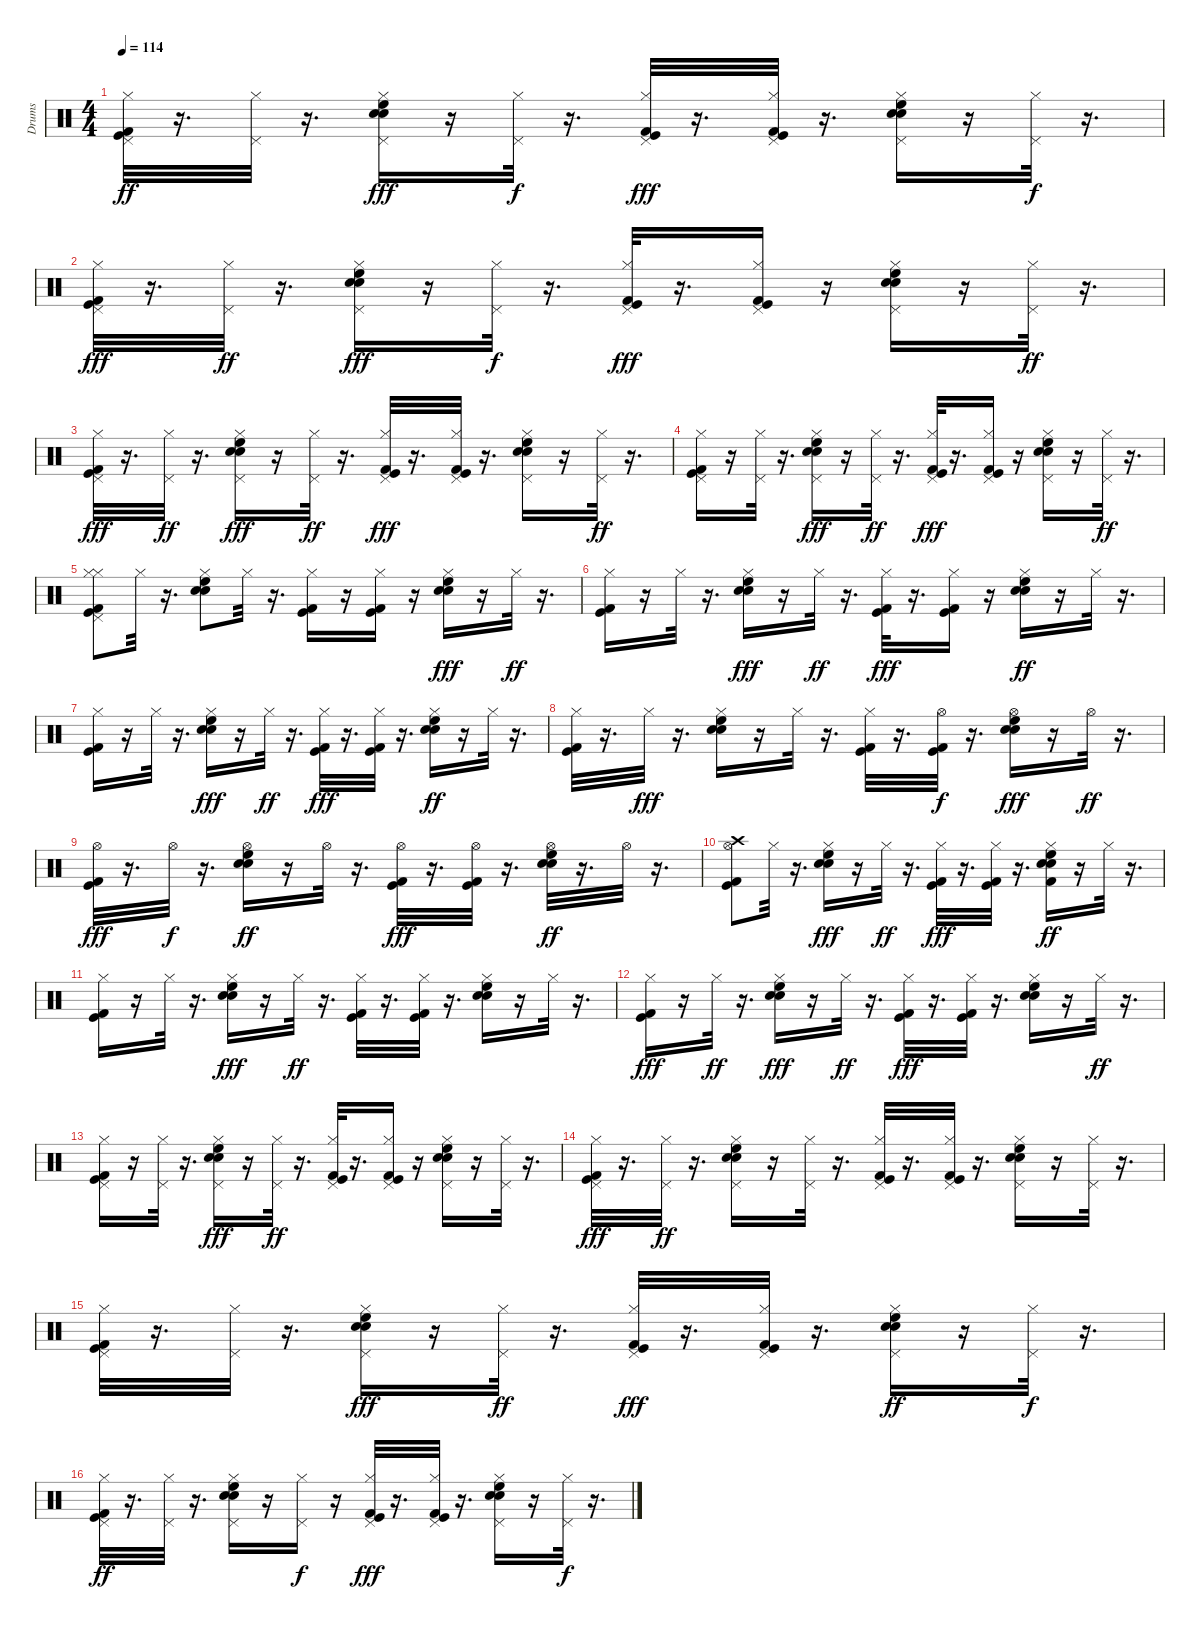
\track ("Drums" "Drums") {instrument percussion}
\staff {score}
\articulation defaults
\ts (4 4)
\tempo 114
\clef neutral
\ks c
("Kick (hit)" "Kick (hit) 2" "Hi-Hat (closed)" "Pedal Hi-Hat (hit)").32{dy ff} r.16{d} ("Hi-Hat (closed)" "Pedal Hi-Hat (hit)").32 r.16{d} ("Electric Snare (hit)" "High Floor Tom (hit)" "Hi-Hat (closed)" "Pedal Hi-Hat (hit)" "Snare (hit) 2").16{dy fff} r.16 ("Pedal Hi-Hat (hit)" "Hi-Hat (closed)").32{dy f} r.16{d} ("Kick (hit)" "Pedal Hi-Hat (hit)" "Kick (hit) 2" "Hi-Hat (closed)").32{dy fff} r.16{d} ("Kick (hit) 2" "Hi-Hat (closed)" "Pedal Hi-Hat (hit)" "Kick (hit)").32 r.16{d} ("Snare (hit) 2" "Electric Snare (hit)" "Hi-Hat (closed)" "Pedal Hi-Hat (hit)" "High Floor Tom (hit)").16 r.16 ("Hi-Hat (closed)" "Pedal Hi-Hat (hit)").32{dy f} r.16{d} |
("Hi-Hat (closed)" "Pedal Hi-Hat (hit)" "Kick (hit)" "Kick (hit) 2").32{dy fff} r.16{d} ("Hi-Hat (closed)" "Pedal Hi-Hat (hit)").32{dy ff} r.16{d} ("Electric Snare (hit)" "Hi-Hat (closed)" "Pedal Hi-Hat (hit)" "Snare (hit) 2" "High Floor Tom (hit)").16{dy fff} r.16 ("Pedal Hi-Hat (hit)" "Hi-Hat (closed)").32{dy f} r.16{d} ("Kick (hit) 2" "Pedal Hi-Hat (hit)" "Hi-Hat (closed)" "Kick (hit)").32{dy fff} r.16{d} ("Kick (hit) 2" "Pedal Hi-Hat (hit)" "Hi-Hat (closed)" "Kick (hit)").16 r.16 ("Snare (hit) 2" "High Floor Tom (hit)" "Pedal Hi-Hat (hit)" "Hi-Hat (closed)" "Electric Snare (hit)").16 r.16 ("Pedal Hi-Hat (hit)" "Hi-Hat (closed)").32{dy ff} r.16{d} |
("Kick (hit) 2" "Pedal Hi-Hat (hit)" "Hi-Hat (closed)" "Kick (hit)").32{dy fff} r.16{d} ("Hi-Hat (closed)" "Pedal Hi-Hat (hit)").32{dy ff} r.16{d} ("Electric Snare (hit)" "Snare (hit) 2" "High Floor Tom (hit)" "Pedal Hi-Hat (hit)" "Hi-Hat (closed)").16{dy fff} r.16 ("Pedal Hi-Hat (hit)" "Hi-Hat (closed)").32{dy ff} r.16{d} ("Pedal Hi-Hat (hit)" "Hi-Hat (closed)" "Kick (hit) 2" "Kick (hit)").32{dy fff} r.16{d} ("Kick (hit) 2" "Hi-Hat (closed)" "Pedal Hi-Hat (hit)" "Kick (hit)").32 r.16{d} ("Snare (hit) 2" "High Floor Tom (hit)" "Hi-Hat (closed)" "Pedal Hi-Hat (hit)" "Electric Snare (hit)").16 r.16 ("Pedal Hi-Hat (hit)" "Hi-Hat (closed)").32{dy ff} r.16{d} |
("Kick (hit) 2" "Kick (hit)" "Hi-Hat (closed)" "Pedal Hi-Hat (hit)").16 r.16 ("Pedal Hi-Hat (hit)" "Hi-Hat (closed)").32 r.16{d} ("Snare (hit) 2" "Hi-Hat (closed)" "Pedal Hi-Hat (hit)" "Electric Snare (hit)" "High Floor Tom (hit)").16{dy fff} r.16 ("Pedal Hi-Hat (hit)" "Hi-Hat (closed)").32{dy ff} r.16{d} ("Pedal Hi-Hat (hit)" "Hi-Hat (closed)" "Kick (hit) 2" "Kick (hit)").32{dy fff} r.16{d} ("Pedal Hi-Hat (hit)" "Kick (hit) 2" "Hi-Hat (closed)" "Kick (hit)").16 r.16 ("Electric Snare (hit)" "Hi-Hat (closed)" "Snare (hit) 2" "Pedal Hi-Hat (hit)" "High Floor Tom (hit)").16 r.16 ("Pedal Hi-Hat (hit)" "Hi-Hat (closed)").32{dy ff} r.16{d} |
("Hi-Hat (closed)" "Kick (hit)" "Kick (hit) 2" "Pedal Hi-Hat (hit)" "Hi-Hat (closed)").8 "Hi-Hat (closed)".32 r.16{d} ("Electric Snare (hit)" "High Floor Tom (hit)" "Snare (hit) 2" "Hi-Hat (closed)").8 "Hi-Hat (closed)".32 r.16{d} ("Kick (hit) 2" "Kick (hit)" "Hi-Hat (closed)").16 r.16 ("Kick (hit)" "Kick (hit) 2" "Hi-Hat (closed)").16 r.16 ("Electric Snare (hit)" "Hi-Hat (closed)" "Snare (hit) 2" "High Floor Tom (hit)").16{dy fff} r.16 "Hi-Hat (closed)".32{dy ff} r.16{d} |
("Kick (hit)" "Kick (hit) 2" "Hi-Hat (closed)").16 r.16 "Hi-Hat (closed)".32 r.16{d} ("Electric Snare (hit)" "Hi-Hat (closed)" "High Floor Tom (hit)" "Snare (hit) 2").16{dy fff} r.16 "Hi-Hat (closed)".32{dy ff} r.16{d} ("Hi-Hat (closed)" "Kick (hit) 2" "Kick (hit)").32{dy fff} r.16{d} ("Hi-Hat (closed)" "Kick (hit) 2" "Kick (hit)").16 r.16 ("High Floor Tom (hit)" "Snare (hit) 2" "Electric Snare (hit)" "Hi-Hat (closed)").16{dy ff} r.16 "Hi-Hat (closed)".32 r.16{d} |
("Kick (hit) 2" "Kick (hit)" "Hi-Hat (closed)").16 r.16 "Hi-Hat (closed)".32 r.16{d} ("Electric Snare (hit)" "High Floor Tom (hit)" "Hi-Hat (closed)" "Snare (hit) 2").16{dy fff} r.16 "Hi-Hat (closed)".32{dy ff} r.16{d} ("Kick (hit) 2" "Hi-Hat (closed)" "Kick (hit)").32{dy fff} r.16{d} ("Kick (hit) 2" "Hi-Hat (closed)" "Kick (hit)").32 r.16{d} ("High Floor Tom (hit)" "Snare (hit) 2" "Electric Snare (hit)" "Hi-Hat (closed)").16{dy ff} r.16 "Hi-Hat (closed)".32 r.16{d} |
("Kick (hit)" "Kick (hit) 2" "Hi-Hat (closed)").32 r.16{d} "Hi-Hat (closed)".32{dy fff} r.16{d} ("Hi-Hat (closed)" "Electric Snare (hit)" "Snare (hit) 2" "High Floor Tom (hit)").16 r.16 "Hi-Hat (closed)".32 r.16{d} ("Hi-Hat (closed)" "Kick (hit) 2" "Kick (hit)").32 r.16{d} ("Hi-Hat (open)" "Kick (hit)" "Kick (hit) 2").32{dy f} r.16{d} ("High Floor Tom (hit)" "Hi-Hat (open)" "Snare (hit) 2" "Electric Snare (hit)").16{dy fff} r.16 "Hi-Hat (open)".32{dy ff} r.16{d} |
("Kick (hit)" "Hi-Hat (open)" "Kick (hit) 2").32{dy fff} r.16{d} "Hi-Hat (open)".32{dy f} r.16{d} ("Electric Snare (hit)" "High Floor Tom (hit)" "Snare (hit) 2" "Hi-Hat (open)").16{dy ff} r.16 "Hi-Hat (open)".32 r.16{d} ("Kick (hit) 2" "Hi-Hat (open)" "Kick (hit)").32{dy fff} r.16{d} ("Hi-Hat (open)" "Kick (hit) 2" "Kick (hit)").32 r.16{d} ("High Floor Tom (hit)" "Snare (hit) 2" "Electric Snare (hit)" "Hi-Hat (open)").32{dy ff} r.16{d} "Hi-Hat (open)".32 r.16{d} |
("Kick (hit) 2" "Kick (hit)" "Crash high (hit)" "Hi-Hat (open)").8 "Hi-Hat (closed)".32 r.16{d} ("Electric Snare (hit)" "Hi-Hat (closed)" "Snare (hit) 2" "High Floor Tom (hit)").16{dy fff} r.16 "Hi-Hat (closed)".32{dy ff} r.16{d} ("Kick (hit) 2" "Hi-Hat (closed)" "Kick (hit)").32{dy fff} r.16{d} ("Kick (hit) 2" "Hi-Hat (closed)" "Kick (hit)").32 r.16{d} ("Kick (hit) 2" "Snare (hit) 2" "Electric Snare (hit)" "High Floor Tom (hit)" "Hi-Hat (closed)").16{dy ff} r.16 "Hi-Hat (closed)".32 r.16{d} |
("Kick (hit)" "Kick (hit) 2" "Hi-Hat (closed)").16 r.16 "Hi-Hat (closed)".32 r.16{d} ("Electric Snare (hit)" "High Floor Tom (hit)" "Hi-Hat (closed)" "Snare (hit) 2").16{dy fff} r.16 "Hi-Hat (closed)".32{dy ff} r.16{d} ("Kick (hit) 2" "Kick (hit)" "Hi-Hat (closed)").32 r.16{d} ("Kick (hit) 2" "Kick (hit)" "Hi-Hat (closed)").32 r.16{d} ("Electric Snare (hit)" "Snare (hit) 2" "High Floor Tom (hit)" "Hi-Hat (closed)").16 r.16 "Hi-Hat (closed)".32 r.16{d} |
("Hi-Hat (closed)" "Kick (hit)" "Kick (hit) 2").16{dy fff} r.16 "Hi-Hat (closed)".32{dy ff} r.16{d} ("Electric Snare (hit)" "Snare (hit) 2" "Hi-Hat (closed)" "High Floor Tom (hit)").16{dy fff} r.16 "Hi-Hat (closed)".32{dy ff} r.16{d} ("Kick (hit) 2" "Hi-Hat (closed)" "Kick (hit)").32{dy fff} r.16{d} ("Kick (hit) 2" "Hi-Hat (closed)" "Kick (hit)").32 r.16{d} ("High Floor Tom (hit)" "Snare (hit) 2" "Electric Snare (hit)" "Hi-Hat (closed)").16 r.16 "Hi-Hat (closed)".32{dy ff} r.16{d} |
("Kick (hit)" "Kick (hit) 2" "Pedal Hi-Hat (hit)" "Hi-Hat (closed)").16 r.16 ("Pedal Hi-Hat (hit)" "Hi-Hat (closed)").32 r.16{d} ("Electric Snare (hit)" "Pedal Hi-Hat (hit)" "Hi-Hat (closed)" "High Floor Tom (hit)" "Snare (hit) 2").16{dy fff} r.16 ("Pedal Hi-Hat (hit)" "Hi-Hat (closed)").32{dy ff} r.16{d} ("Kick (hit)" "Kick (hit) 2" "Pedal Hi-Hat (hit)" "Hi-Hat (closed)").32 r.16{d} ("Kick (hit) 2" "Kick (hit)" "Pedal Hi-Hat (hit)" "Hi-Hat (closed)").16 r.16 ("Snare (hit) 2" "Electric Snare (hit)" "High Floor Tom (hit)" "Pedal Hi-Hat (hit)" "Hi-Hat (closed)").16 r.16 ("Pedal Hi-Hat (hit)" "Hi-Hat (closed)").32 r.16{d} |
("Kick (hit)" "Pedal Hi-Hat (hit)" "Hi-Hat (closed)" "Kick (hit) 2").32{dy fff} r.16{d} ("Pedal Hi-Hat (hit)" "Hi-Hat (closed)").32{dy ff} r.16{d} ("High Floor Tom (hit)" "Electric Snare (hit)" "Pedal Hi-Hat (hit)" "Snare (hit) 2" "Hi-Hat (closed)").16 r.16 ("Pedal Hi-Hat (hit)" "Hi-Hat (closed)").32 r.16{d} ("Kick (hit) 2" "Kick (hit)" "Pedal Hi-Hat (hit)" "Hi-Hat (closed)").32 r.16{d} ("Kick (hit) 2" "Kick (hit)" "Pedal Hi-Hat (hit)" "Hi-Hat (closed)").32 r.16{d} ("Electric Snare (hit)" "High Floor Tom (hit)" "Snare (hit) 2" "Pedal Hi-Hat (hit)" "Hi-Hat (closed)").16 r.16 ("Pedal Hi-Hat (hit)" "Hi-Hat (closed)").32 r.16{d} |
("Kick (hit) 2" "Kick (hit)" "Pedal Hi-Hat (hit)" "Hi-Hat (closed)").32 r.16{d} ("Pedal Hi-Hat (hit)" "Hi-Hat (closed)").32 r.16{d} ("Electric Snare (hit)" "Snare (hit) 2" "Pedal Hi-Hat (hit)" "Hi-Hat (closed)" "High Floor Tom (hit)").16{dy fff} r.16 ("Pedal Hi-Hat (hit)" "Hi-Hat (closed)").32{dy ff} r.16{d} ("Kick (hit) 2" "Pedal Hi-Hat (hit)" "Hi-Hat (closed)" "Kick (hit)").32{dy fff} r.16{d} ("Pedal Hi-Hat (hit)" "Hi-Hat (closed)" "Kick (hit) 2" "Kick (hit)").32 r.16{d} ("Electric Snare (hit)" "High Floor Tom (hit)" "Snare (hit) 2" "Pedal Hi-Hat (hit)" "Hi-Hat (closed)").16{dy ff} r.16 ("Pedal Hi-Hat (hit)" "Hi-Hat (closed)").32{dy f} r.16{d} |
("Kick (hit) 2" "Kick (hit)" "Pedal Hi-Hat (hit)" "Hi-Hat (closed)").32{dy ff} r.16{d} ("Pedal Hi-Hat (hit)" "Hi-Hat (closed)").32 r.16{d} ("Electric Snare (hit)" "Snare (hit) 2" "Pedal Hi-Hat (hit)" "High Floor Tom (hit)" "Hi-Hat (closed)").16 r.16 ("Pedal Hi-Hat (hit)" "Hi-Hat (closed)").16{dy f} r.16 ("Kick (hit) 2" "Pedal Hi-Hat (hit)" "Hi-Hat (closed)" "Kick (hit)").32{dy fff} r.16{d} ("Kick (hit) 2" "Pedal Hi-Hat (hit)" "Hi-Hat (closed)" "Kick (hit)").32 r.16{d} ("Snare (hit) 2" "Electric Snare (hit)" "Pedal Hi-Hat (hit)" "Hi-Hat (closed)" "High Floor Tom (hit)").16 r.16 ("Pedal Hi-Hat (hit)" "Hi-Hat (closed)").32{dy f} r.16{d}
